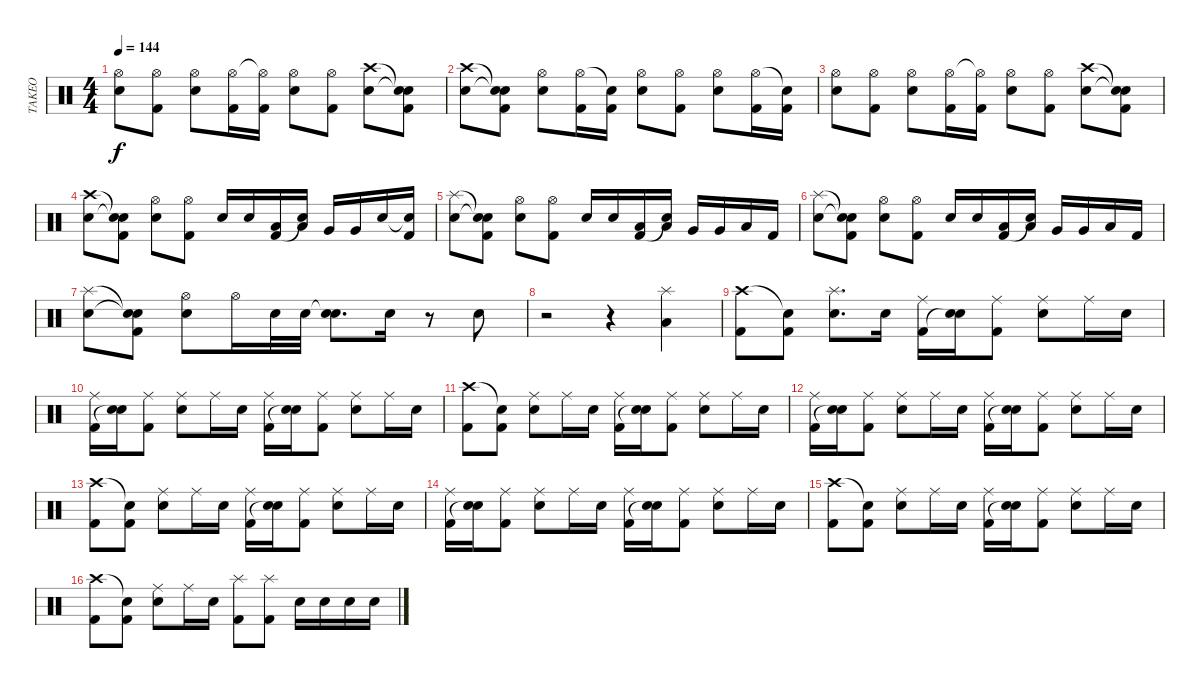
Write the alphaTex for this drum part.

\track ("TAKEO" "TAKEO") {instrument percussion}
\staff {score}
\articulation defaults
\ts (4 4)
\tempo 144
\clef neutral
\ks c
("Hi-Hat (open)" "Electric Snare (hit)").8{dy f} ("Hi-Hat (open)" "Kick (hit) 2").8 ("Hi-Hat (open)" "Electric Snare (hit)").8 ("Hi-Hat (open)" "Kick (hit) 2").16 ("Hi-Hat (open)"{t} "Kick (hit) 2").16 ("Hi-Hat (open)" "Electric Snare (hit)").8 ("Hi-Hat (open)" "Kick (hit) 2").8 ("Crash high (hit)" "Electric Snare (hit)").8 ("Snare (hit)"{t} "Snare (hit)"{t} "Kick (hit) 2").8 |
("Crash high (hit)" "Electric Snare (hit)").8 ("Snare (hit)"{t} "Snare (hit)"{t} "Kick (hit) 2").8 ("Hi-Hat (open)" "Electric Snare (hit)").8 ("Hi-Hat (open)" "Kick (hit) 2").16 ("Snare (hit)"{t} "Kick (hit) 2").16 ("Hi-Hat (open)" "Electric Snare (hit)").8 ("Hi-Hat (open)" "Kick (hit) 2").8 ("Hi-Hat (open)" "Electric Snare (hit)").8 ("Hi-Hat (open)" "Kick (hit) 2").16 ("Snare (hit)"{t} "Kick (hit) 2").16 |
("Hi-Hat (open)" "Electric Snare (hit)").8 ("Hi-Hat (open)" "Kick (hit) 2").8 ("Hi-Hat (open)" "Electric Snare (hit)").8 ("Hi-Hat (open)" "Kick (hit) 2").16 ("Hi-Hat (open)"{t} "Kick (hit) 2").16 ("Hi-Hat (open)" "Electric Snare (hit)").8 ("Hi-Hat (open)" "Kick (hit) 2").8 ("Crash high (hit)" "Electric Snare (hit)").8 ("Snare (hit)"{t} "Snare (hit)"{t} "Kick (hit) 2").8 |
("Crash high (hit)" "Electric Snare (hit)").8 ("Snare (hit)"{t} "Snare (hit)"{t} "Kick (hit) 2").8 ("Hi-Hat (open)" "Electric Snare (hit)").8 ("Hi-Hat (open)" "Kick (hit) 2").8 "Electric Snare (hit)".16 "Electric Snare (hit)".16 ("Low Tom (hit)" "Kick (hit) 2").16 ("Low Tom (hit)" "Snare (hit)"{t}).16 "Very Low Tom (hit)".16 "Very Low Tom (hit)".16 "Electric Snare (hit)".16 ("Snare (hit)"{t} "Kick (hit) 2").16 |
("Splash (hit)" "Electric Snare (hit)").8 ("Snare (hit)"{t} "Snare (hit)"{t} "Kick (hit) 2").8 ("Hi-Hat (open)" "Electric Snare (hit)").8 ("Hi-Hat (open)" "Kick (hit) 2").8 "Electric Snare (hit)".16 "Electric Snare (hit)".16 ("Low Tom (hit)" "Kick (hit) 2").16 ("Low Tom (hit)" "Snare (hit)"{t}).16 "Very Low Tom (hit)".16 "Very Low Tom (hit)".16 "Low Floor Tom (hit)".16 "Kick (hit) 2".16 |
("Splash (hit)" "Electric Snare (hit)").8 ("Snare (hit)"{t} "Snare (hit)"{t} "Kick (hit) 2").8 ("Hi-Hat (open)" "Electric Snare (hit)").8 ("Hi-Hat (open)" "Kick (hit) 2").8 "Electric Snare (hit)".16 "Electric Snare (hit)".16 ("Low Tom (hit)" "Kick (hit) 2").16 ("Low Tom (hit)" "Snare (hit)"{t}).16 "Very Low Tom (hit)".16 "Very Low Tom (hit)".16 "Low Floor Tom (hit)".16 "Kick (hit) 2".16 |
("Splash (hit)" "Electric Snare (hit)").8 ("Snare (hit)"{t} "Snare (hit)"{t} "Kick (hit) 2").8 ("Hi-Hat (open)" "Electric Snare (hit)").8 "Hi-Hat (open)".16 "Electric Snare (hit)".32 "Electric Snare (hit)".32 ("Snare (hit)"{t} "Electric Snare (hit)").8{d} "Electric Snare (hit)".16 r.8 "Electric Snare (hit)".8 |
r.2 r.4 ("Splash (hit)" "Low Floor Tom (hit)").4 |
("Crash high (hit)" "Kick (hit) 2").8 ("Snare (hit)"{t} "Kick (hit) 2").8 ("Splash (hit)" "Electric Snare (hit)").8{d} "Electric Snare (hit)".16 ("Ride (middle)" "Kick (hit) 2").16 ("Electric Snare (hit)" "Snare (hit)"{t}).16 ("Ride (middle)" "Kick (hit) 2").8 ("Ride (middle)" "Electric Snare (hit)").8 "Ride (middle)".16 "Electric Snare (hit)".16 |
("Ride (middle)" "Kick (hit) 2").16 ("Electric Snare (hit)" "Snare (hit)"{t}).16 ("Ride (middle)" "Kick (hit) 2").8 ("Ride (middle)" "Electric Snare (hit)").8 "Ride (middle)".16 "Electric Snare (hit)".16 ("Ride (middle)" "Kick (hit) 2").16 ("Electric Snare (hit)" "Snare (hit)"{t}).16 ("Ride (middle)" "Kick (hit) 2").8 ("Ride (middle)" "Electric Snare (hit)").8 "Ride (middle)".16 "Electric Snare (hit)".16 |
("Crash high (hit)" "Kick (hit) 2").8 ("Snare (hit)"{t} "Kick (hit) 2").8 ("Ride (middle)" "Electric Snare (hit)").8 "Ride (middle)".16 "Electric Snare (hit)".16 ("Ride (middle)" "Kick (hit) 2").16 ("Electric Snare (hit)" "Snare (hit)"{t}).16 ("Ride (middle)" "Kick (hit) 2").8 ("Ride (middle)" "Electric Snare (hit)").8 "Ride (middle)".16 "Electric Snare (hit)".16 |
("Ride (middle)" "Kick (hit) 2").16 ("Electric Snare (hit)" "Snare (hit)"{t}).16 ("Ride (middle)" "Kick (hit) 2").8 ("Ride (middle)" "Electric Snare (hit)").8 "Ride (middle)".16 "Electric Snare (hit)".16 ("Ride (middle)" "Kick (hit) 2").16 ("Electric Snare (hit)" "Snare (hit)"{t}).16 ("Ride (middle)" "Kick (hit) 2").8 ("Ride (middle)" "Electric Snare (hit)").8 "Ride (middle)".16 "Electric Snare (hit)".16 |
("Crash high (hit)" "Kick (hit) 2").8 ("Snare (hit)"{t} "Kick (hit) 2").8 ("Ride (middle)" "Electric Snare (hit)").8 "Ride (middle)".16 "Electric Snare (hit)".16 ("Ride (middle)" "Kick (hit) 2").16 ("Electric Snare (hit)" "Snare (hit)"{t}).16 ("Ride (middle)" "Kick (hit) 2").8 ("Ride (middle)" "Electric Snare (hit)").8 "Ride (middle)".16 "Electric Snare (hit)".16 |
("Ride (middle)" "Kick (hit) 2").16 ("Electric Snare (hit)" "Snare (hit)"{t}).16 ("Ride (middle)" "Kick (hit) 2").8 ("Ride (middle)" "Electric Snare (hit)").8 "Ride (middle)".16 "Electric Snare (hit)".16 ("Ride (middle)" "Kick (hit) 2").16 ("Electric Snare (hit)" "Snare (hit)"{t}).16 ("Ride (middle)" "Kick (hit) 2").8 ("Ride (middle)" "Electric Snare (hit)").8 "Ride (middle)".16 "Electric Snare (hit)".16 |
("Crash high (hit)" "Kick (hit) 2").8 ("Snare (hit)"{t} "Kick (hit) 2").8 ("Ride (middle)" "Electric Snare (hit)").8 "Ride (middle)".16 "Electric Snare (hit)".16 ("Ride (middle)" "Kick (hit) 2").16 ("Electric Snare (hit)" "Snare (hit)"{t}).16 ("Ride (middle)" "Kick (hit) 2").8 ("Ride (middle)" "Electric Snare (hit)").8 "Ride (middle)".16 "Electric Snare (hit)".16 |
("Crash high (hit)" "Kick (hit) 2").8 ("Snare (hit)"{t} "Kick (hit) 2").8 ("Ride (middle)" "Electric Snare (hit)").8 "Ride (middle)".16 "Electric Snare (hit)".16 ("Splash (hit)" "Kick (hit) 2").8 ("Splash (hit)" "Kick (hit) 2").8 "Electric Snare (hit)".16 "Electric Snare (hit)".16 "Electric Snare (hit)".16 "Electric Snare (hit)".16
